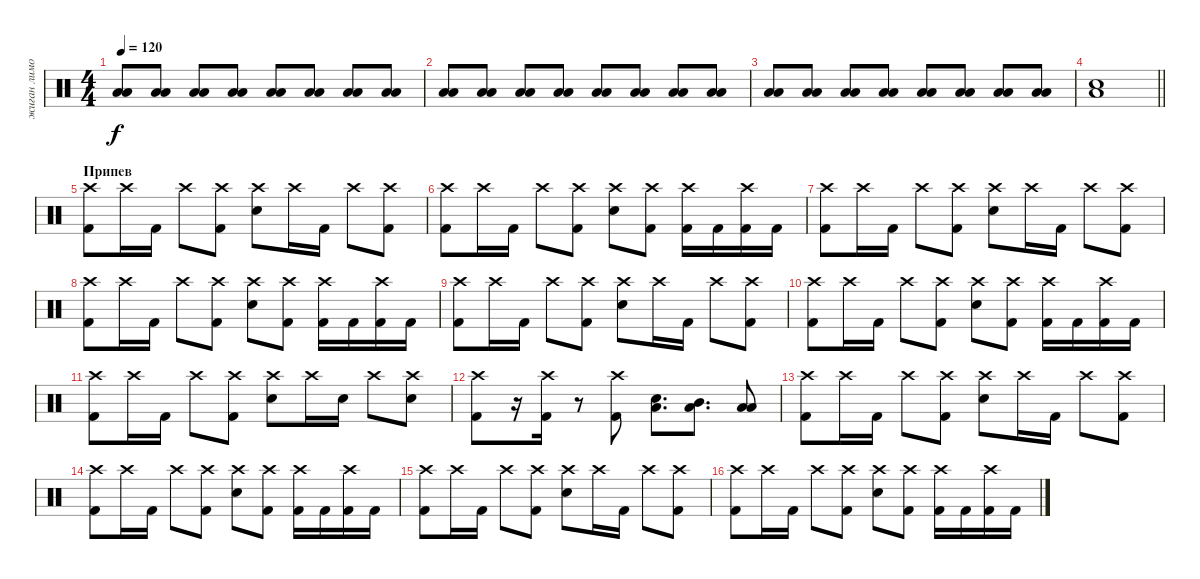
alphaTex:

\track ("жиган лимон" "жиган лимо") {instrument percussion}
\staff {score}
\articulation defaults
\ts (4 4)
\tempo 120
\clef neutral
\ks c
("Low Floor Tom (hit)" "Low Tom (hit)").8{dy f volume 13} ("Low Floor Tom (hit)" "Low Tom (hit)").8 ("Low Floor Tom (hit)" "Low Tom (hit)").8 ("Low Floor Tom (hit)" "Low Tom (hit)").8 ("Low Floor Tom (hit)" "Low Tom (hit)").8 ("Low Floor Tom (hit)" "Low Tom (hit)").8 ("Low Floor Tom (hit)" "Low Tom (hit)").8 ("Low Floor Tom (hit)" "Low Tom (hit)").8 |
("Low Floor Tom (hit)" "Low Tom (hit)").8 ("Low Floor Tom (hit)" "Low Tom (hit)").8 ("Low Floor Tom (hit)" "Low Tom (hit)").8 ("Low Floor Tom (hit)" "Low Tom (hit)").8 ("Low Floor Tom (hit)" "Low Tom (hit)").8 ("Low Floor Tom (hit)" "Low Tom (hit)").8 ("Low Floor Tom (hit)" "Low Tom (hit)").8 ("Low Floor Tom (hit)" "Low Tom (hit)").8 |
("Low Floor Tom (hit)" "Low Tom (hit)").8 ("Low Floor Tom (hit)" "Low Tom (hit)").8 ("Low Floor Tom (hit)" "Low Tom (hit)").8 ("Low Floor Tom (hit)" "Low Tom (hit)").8 ("Low Floor Tom (hit)" "Low Tom (hit)").8 ("Low Floor Tom (hit)" "Low Tom (hit)").8 ("Low Floor Tom (hit)" "Low Tom (hit)").8 ("Low Floor Tom (hit)" "Low Tom (hit)").8 |
\barLineRight lightlight
("Snare (hit) 2" "Low Floor Tom (hit)").1 |
\section ("" "Припев")
("Crash high (hit)" "Kick (hit) 2").8 "Crash high (hit)".16 "Kick (hit) 2".16 "Crash high (hit)".8 ("Crash high (hit)" "Kick (hit) 2").8 ("Snare (hit) 2" "Crash high (hit)").8 "Crash high (hit)".16 "Kick (hit) 2".16 "Crash high (hit)".8 ("Crash high (hit)" "Kick (hit) 2").8 |
("Crash high (hit)" "Kick (hit) 2").8 "Crash high (hit)".16 "Kick (hit) 2".16 "Crash high (hit)".8 ("Crash high (hit)" "Kick (hit) 2").8 ("Snare (hit) 2" "Crash high (hit)").8 ("Crash high (hit)" "Kick (hit) 2").8 ("Crash high (hit)" "Kick (hit) 2").16 "Kick (hit) 2".16 ("Crash high (hit)" "Kick (hit) 2").16 "Kick (hit) 2".16 |
("Crash high (hit)" "Kick (hit) 2").8 "Crash high (hit)".16 "Kick (hit) 2".16 "Crash high (hit)".8 ("Crash high (hit)" "Kick (hit) 2").8 ("Snare (hit) 2" "Crash high (hit)").8 "Crash high (hit)".16 "Kick (hit) 2".16 "Crash high (hit)".8 ("Crash high (hit)" "Kick (hit) 2").8 |
("Crash high (hit)" "Kick (hit) 2").8 "Crash high (hit)".16 "Kick (hit) 2".16 "Crash high (hit)".8 ("Crash high (hit)" "Kick (hit) 2").8 ("Snare (hit) 2" "Crash high (hit)").8 ("Crash high (hit)" "Kick (hit) 2").8 ("Crash high (hit)" "Kick (hit) 2").16 "Kick (hit) 2".16 ("Crash high (hit)" "Kick (hit) 2").16 "Kick (hit) 2".16 |
("Crash high (hit)" "Kick (hit) 2").8 "Crash high (hit)".16 "Kick (hit) 2".16 "Crash high (hit)".8 ("Crash high (hit)" "Kick (hit) 2").8 ("Snare (hit) 2" "Crash high (hit)").8 "Crash high (hit)".16 "Kick (hit) 2".16 "Crash high (hit)".8 ("Crash high (hit)" "Kick (hit) 2").8 |
("Crash high (hit)" "Kick (hit) 2").8 "Crash high (hit)".16 "Kick (hit) 2".16 "Crash high (hit)".8 ("Crash high (hit)" "Kick (hit) 2").8 ("Snare (hit) 2" "Crash high (hit)").8 ("Crash high (hit)" "Kick (hit) 2").8 ("Crash high (hit)" "Kick (hit) 2").16 "Kick (hit) 2".16 ("Crash high (hit)" "Kick (hit) 2").16 "Kick (hit) 2".16 |
("Crash high (hit)" "Kick (hit) 2").8 "Crash high (hit)".16 "Kick (hit) 2".16 "Crash high (hit)".8 ("Crash high (hit)" "Kick (hit) 2").8 ("Snare (hit) 2" "Crash high (hit)").8 "Crash high (hit)".16 "Snare (hit) 2".16 "Crash high (hit)".8 ("Crash high (hit)" "Snare (hit) 2").8 |
("Crash high (hit)" "Kick (hit) 2").8 r.16 ("Crash high (hit)" "Kick (hit) 2").16 r.8 ("Crash high (hit)" "Kick (hit) 2").8 ("Low Tom (hit)" "Snare (hit) 2").8{d} ("Mid Tom (hit)" "Low Tom (hit)").8{d} ("Low Tom (hit)" "Low Tom (hit)").8 |
("Crash high (hit)" "Kick (hit) 2").8 "Crash high (hit)".16 "Kick (hit) 2".16 "Crash high (hit)".8 ("Crash high (hit)" "Kick (hit) 2").8 ("Snare (hit) 2" "Crash high (hit)").8 "Crash high (hit)".16 "Kick (hit) 2".16 "Crash high (hit)".8 ("Crash high (hit)" "Kick (hit) 2").8 |
("Crash high (hit)" "Kick (hit) 2").8 "Crash high (hit)".16 "Kick (hit) 2".16 "Crash high (hit)".8 ("Crash high (hit)" "Kick (hit) 2").8 ("Snare (hit) 2" "Crash high (hit)").8 ("Crash high (hit)" "Kick (hit) 2").8 ("Crash high (hit)" "Kick (hit) 2").16 "Kick (hit) 2".16 ("Crash high (hit)" "Kick (hit) 2").16 "Kick (hit) 2".16 |
("Crash high (hit)" "Kick (hit) 2").8 "Crash high (hit)".16 "Kick (hit) 2".16 "Crash high (hit)".8 ("Crash high (hit)" "Kick (hit) 2").8 ("Snare (hit) 2" "Crash high (hit)").8 "Crash high (hit)".16 "Kick (hit) 2".16 "Crash high (hit)".8 ("Crash high (hit)" "Kick (hit) 2").8 |
("Crash high (hit)" "Kick (hit) 2").8 "Crash high (hit)".16 "Kick (hit) 2".16 "Crash high (hit)".8 ("Crash high (hit)" "Kick (hit) 2").8 ("Snare (hit) 2" "Crash high (hit)").8 ("Crash high (hit)" "Kick (hit) 2").8 ("Crash high (hit)" "Kick (hit) 2").16 "Kick (hit) 2".16 ("Crash high (hit)" "Kick (hit) 2").16 "Kick (hit) 2".16
